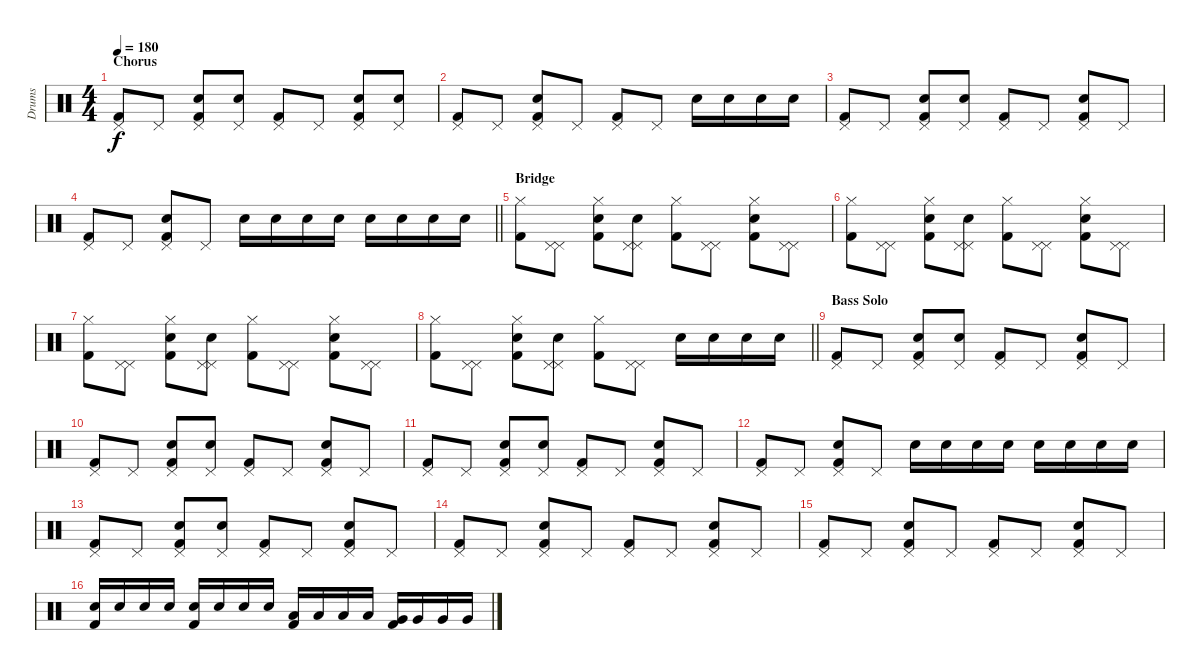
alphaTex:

\track ("Drums" "Drums") {instrument percussion}
\staff {score}
\articulation defaults
\ts (4 4)
\section ("" "Chorus")
\tempo 180
\clef neutral
\ks c
("Pedal Hi-Hat (hit)" "Kick (hit) 2").8{dy f} "Pedal Hi-Hat (hit)".8 ("Pedal Hi-Hat (hit)" "Kick (hit) 2" "Electric Snare (hit)").8 ("Pedal Hi-Hat (hit)" "Electric Snare (hit)").8 ("Pedal Hi-Hat (hit)" "Kick (hit) 2").8 "Pedal Hi-Hat (hit)".8 ("Pedal Hi-Hat (hit)" "Kick (hit) 2" "Electric Snare (hit)").8 ("Pedal Hi-Hat (hit)" "Electric Snare (hit)").8 |
("Pedal Hi-Hat (hit)" "Kick (hit) 2").8 "Pedal Hi-Hat (hit)".8 ("Pedal Hi-Hat (hit)" "Kick (hit) 2" "Electric Snare (hit)").8 "Pedal Hi-Hat (hit)".8 ("Pedal Hi-Hat (hit)" "Kick (hit) 2").8 "Pedal Hi-Hat (hit)".8 "Electric Snare (hit)".16 "Electric Snare (hit)".16 "Electric Snare (hit)".16 "Electric Snare (hit)".16 |
("Pedal Hi-Hat (hit)" "Kick (hit) 2").8 "Pedal Hi-Hat (hit)".8 ("Pedal Hi-Hat (hit)" "Kick (hit) 2" "Electric Snare (hit)").8 ("Pedal Hi-Hat (hit)" "Electric Snare (hit)").8 ("Pedal Hi-Hat (hit)" "Kick (hit) 2").8 "Pedal Hi-Hat (hit)".8 ("Pedal Hi-Hat (hit)" "Kick (hit) 2" "Electric Snare (hit)").8 "Pedal Hi-Hat (hit)".8 |
\barLineRight lightlight
("Pedal Hi-Hat (hit)" "Kick (hit) 2").8 "Pedal Hi-Hat (hit)".8 ("Pedal Hi-Hat (hit)" "Kick (hit) 2" "Electric Snare (hit)").8 "Pedal Hi-Hat (hit)".8 "Electric Snare (hit)".16 "Electric Snare (hit)".16 "Electric Snare (hit)".16 "Electric Snare (hit)".16 "Electric Snare (hit)".16 "Electric Snare (hit)".16 "Electric Snare (hit)".16 "Electric Snare (hit)".16 |
\section ("" "Bridge")
("Hi-Hat (closed)" "Kick (hit) 2").8 ("Pedal Hi-Hat (hit)" "Pedal Hi-Hat (hit)").8 ("Hi-Hat (closed)" "Kick (hit) 2" "Electric Snare (hit)").8 ("Pedal Hi-Hat (hit)" "Electric Snare (hit)" "Pedal Hi-Hat (hit)").8 ("Hi-Hat (closed)" "Kick (hit) 2").8 ("Pedal Hi-Hat (hit)" "Pedal Hi-Hat (hit)").8 ("Hi-Hat (closed)" "Kick (hit) 2" "Electric Snare (hit)").8 ("Pedal Hi-Hat (hit)" "Pedal Hi-Hat (hit)").8 |
("Hi-Hat (closed)" "Kick (hit) 2").8 ("Pedal Hi-Hat (hit)" "Pedal Hi-Hat (hit)").8 ("Hi-Hat (closed)" "Kick (hit) 2" "Electric Snare (hit)").8 ("Pedal Hi-Hat (hit)" "Electric Snare (hit)" "Pedal Hi-Hat (hit)").8 ("Hi-Hat (closed)" "Kick (hit) 2").8 ("Pedal Hi-Hat (hit)" "Pedal Hi-Hat (hit)").8 ("Hi-Hat (closed)" "Kick (hit) 2" "Electric Snare (hit)").8 ("Pedal Hi-Hat (hit)" "Pedal Hi-Hat (hit)").8 |
("Hi-Hat (closed)" "Kick (hit) 2").8 ("Pedal Hi-Hat (hit)" "Pedal Hi-Hat (hit)").8 ("Hi-Hat (closed)" "Kick (hit) 2" "Electric Snare (hit)").8 ("Pedal Hi-Hat (hit)" "Electric Snare (hit)" "Pedal Hi-Hat (hit)").8 ("Hi-Hat (closed)" "Kick (hit) 2").8 ("Pedal Hi-Hat (hit)" "Pedal Hi-Hat (hit)").8 ("Hi-Hat (closed)" "Kick (hit) 2" "Electric Snare (hit)").8 ("Pedal Hi-Hat (hit)" "Pedal Hi-Hat (hit)").8 |
\barLineRight lightlight
("Hi-Hat (closed)" "Kick (hit) 2").8 ("Pedal Hi-Hat (hit)" "Pedal Hi-Hat (hit)").8 ("Hi-Hat (closed)" "Kick (hit) 2" "Electric Snare (hit)").8 ("Pedal Hi-Hat (hit)" "Electric Snare (hit)" "Pedal Hi-Hat (hit)").8 ("Hi-Hat (closed)" "Kick (hit) 2").8 ("Pedal Hi-Hat (hit)" "Pedal Hi-Hat (hit)").8 "Electric Snare (hit)".16 "Electric Snare (hit)".16 "Electric Snare (hit)".16 "Electric Snare (hit)".16 |
\section ("" "Bass Solo")
("Pedal Hi-Hat (hit)" "Kick (hit) 2").8 "Pedal Hi-Hat (hit)".8 ("Pedal Hi-Hat (hit)" "Kick (hit) 2" "Electric Snare (hit)").8 ("Pedal Hi-Hat (hit)" "Electric Snare (hit)").8 ("Pedal Hi-Hat (hit)" "Kick (hit) 2").8 "Pedal Hi-Hat (hit)".8 ("Pedal Hi-Hat (hit)" "Kick (hit) 2" "Electric Snare (hit)").8 "Pedal Hi-Hat (hit)".8 |
("Pedal Hi-Hat (hit)" "Kick (hit) 2").8 "Pedal Hi-Hat (hit)".8 ("Pedal Hi-Hat (hit)" "Kick (hit) 2" "Electric Snare (hit)").8 ("Pedal Hi-Hat (hit)" "Electric Snare (hit)").8 ("Pedal Hi-Hat (hit)" "Kick (hit) 2").8 "Pedal Hi-Hat (hit)".8 ("Pedal Hi-Hat (hit)" "Kick (hit) 2" "Electric Snare (hit)").8 "Pedal Hi-Hat (hit)".8 |
("Pedal Hi-Hat (hit)" "Kick (hit) 2").8 "Pedal Hi-Hat (hit)".8 ("Pedal Hi-Hat (hit)" "Kick (hit) 2" "Electric Snare (hit)").8 ("Pedal Hi-Hat (hit)" "Electric Snare (hit)").8 ("Pedal Hi-Hat (hit)" "Kick (hit) 2").8 "Pedal Hi-Hat (hit)".8 ("Pedal Hi-Hat (hit)" "Kick (hit) 2" "Electric Snare (hit)").8 "Pedal Hi-Hat (hit)".8 |
("Pedal Hi-Hat (hit)" "Kick (hit) 2").8 "Pedal Hi-Hat (hit)".8 ("Pedal Hi-Hat (hit)" "Kick (hit) 2" "Electric Snare (hit)").8 "Pedal Hi-Hat (hit)".8 "Electric Snare (hit)".16 "Electric Snare (hit)".16 "Electric Snare (hit)".16 "Electric Snare (hit)".16 "Electric Snare (hit)".16 "Electric Snare (hit)".16 "Electric Snare (hit)".16 "Electric Snare (hit)".16 |
("Pedal Hi-Hat (hit)" "Kick (hit) 2").8 "Pedal Hi-Hat (hit)".8 ("Pedal Hi-Hat (hit)" "Kick (hit) 2" "Electric Snare (hit)").8 ("Pedal Hi-Hat (hit)" "Electric Snare (hit)").8 ("Pedal Hi-Hat (hit)" "Kick (hit) 2").8 "Pedal Hi-Hat (hit)".8 ("Pedal Hi-Hat (hit)" "Kick (hit) 2" "Electric Snare (hit)").8 "Pedal Hi-Hat (hit)".8 |
("Pedal Hi-Hat (hit)" "Kick (hit) 2").8 "Pedal Hi-Hat (hit)".8 ("Pedal Hi-Hat (hit)" "Kick (hit) 2" "Electric Snare (hit)").8 "Pedal Hi-Hat (hit)".8 ("Pedal Hi-Hat (hit)" "Kick (hit) 2").8 "Pedal Hi-Hat (hit)".8 ("Pedal Hi-Hat (hit)" "Kick (hit) 2" "Electric Snare (hit)").8 "Pedal Hi-Hat (hit)".8 |
("Pedal Hi-Hat (hit)" "Kick (hit) 2").8 "Pedal Hi-Hat (hit)".8 ("Pedal Hi-Hat (hit)" "Kick (hit) 2" "Electric Snare (hit)").8 "Pedal Hi-Hat (hit)".8 ("Pedal Hi-Hat (hit)" "Kick (hit) 2").8 "Pedal Hi-Hat (hit)".8 ("Pedal Hi-Hat (hit)" "Kick (hit) 2" "Electric Snare (hit)").8 "Pedal Hi-Hat (hit)".8 |
("Kick (hit) 2" "Electric Snare (hit)").16 "Electric Snare (hit)".16 "Electric Snare (hit)".16 "Electric Snare (hit)".16 ("Kick (hit) 2" "Electric Snare (hit)").16 "Electric Snare (hit)".16 "Electric Snare (hit)".16 "Electric Snare (hit)".16 ("Kick (hit) 2" "Low Floor Tom (hit)").16 "Low Floor Tom (hit)".16 "Low Floor Tom (hit)".16 "Low Floor Tom (hit)".16 ("Kick (hit) 2" "Very Low Tom (hit)").16 "Very Low Tom (hit)".16 "Very Low Tom (hit)".16 "Very Low Tom (hit)".16
